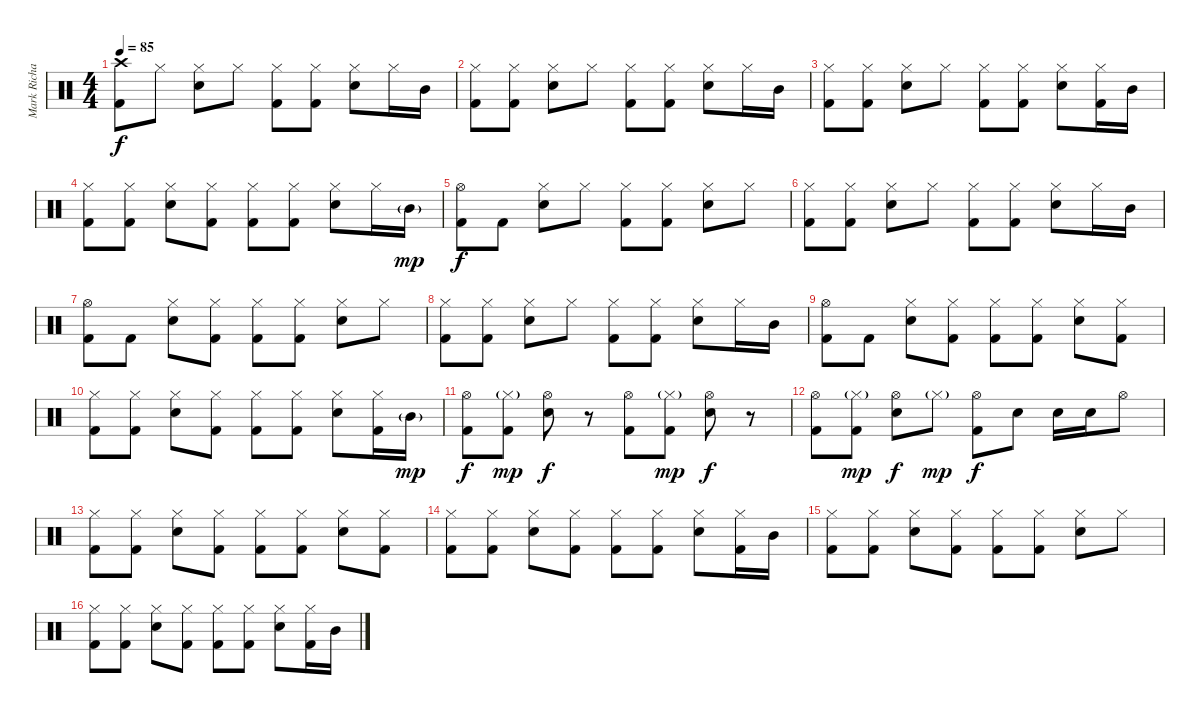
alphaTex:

\track ("Mark Richardson" "Mark Richa") {instrument percussion}
\staff {score}
\articulation defaults
\ts (4 4)
\tempo 85
\clef neutral
\ks c
("Crash high (hit)" "Kick (hit) 2").8{dy f} "Hi-Hat (closed)".8 ("Hi-Hat (closed)" "Snare (hit) 2").8 "Hi-Hat (closed)".8 ("Hi-Hat (closed)" "Kick (hit) 2").8 ("Hi-Hat (closed)" "Kick (hit) 2").8 ("Hi-Hat (closed)" "Snare (hit) 2").8 "Hi-Hat (closed)".16 "Mid Tom (hit)".16 |
("Hi-Hat (closed)" "Kick (hit) 2").8 ("Hi-Hat (closed)" "Kick (hit) 2").8 ("Hi-Hat (closed)" "Snare (hit) 2").8 "Hi-Hat (closed)".8 ("Hi-Hat (closed)" "Kick (hit) 2").8 ("Hi-Hat (closed)" "Kick (hit) 2").8 ("Hi-Hat (closed)" "Snare (hit) 2").8 "Hi-Hat (closed)".16 "Mid Tom (hit)".16 |
("Hi-Hat (closed)" "Kick (hit) 2").8 ("Hi-Hat (closed)" "Kick (hit) 2").8 ("Hi-Hat (closed)" "Snare (hit) 2").8 "Hi-Hat (closed)".8 ("Hi-Hat (closed)" "Kick (hit) 2").8 ("Hi-Hat (closed)" "Kick (hit) 2").8 ("Hi-Hat (closed)" "Snare (hit) 2").8 ("Hi-Hat (closed)" "Kick (hit) 2").16 "Mid Tom (hit)".16 |
("Hi-Hat (closed)" "Kick (hit) 2").8 ("Hi-Hat (closed)" "Kick (hit) 2").8 ("Hi-Hat (closed)" "Snare (hit) 2").8 ("Hi-Hat (closed)" "Kick (hit) 2").8 ("Hi-Hat (closed)" "Kick (hit) 2").8 ("Hi-Hat (closed)" "Kick (hit) 2").8 ("Hi-Hat (closed)" "Snare (hit) 2").8 "Hi-Hat (closed)".16 "Mid Tom (hit)"{g}.16{dy mp} |
("Hi-Hat (open)" "Kick (hit) 2").8{dy f} "Kick (hit) 2".8 ("Hi-Hat (closed)" "Snare (hit) 2").8 "Hi-Hat (closed)".8 ("Hi-Hat (closed)" "Kick (hit) 2").8 ("Hi-Hat (closed)" "Kick (hit) 2").8 ("Hi-Hat (closed)" "Snare (hit) 2").8 "Hi-Hat (closed)".8 |
("Hi-Hat (closed)" "Kick (hit) 2").8 ("Hi-Hat (closed)" "Kick (hit) 2").8 ("Hi-Hat (closed)" "Snare (hit) 2").8 "Hi-Hat (closed)".8 ("Hi-Hat (closed)" "Kick (hit) 2").8 ("Hi-Hat (closed)" "Kick (hit) 2").8 ("Hi-Hat (closed)" "Snare (hit) 2").8 "Hi-Hat (closed)".16 "Mid Tom (hit)".16 |
("Hi-Hat (open)" "Kick (hit) 2").8 "Kick (hit) 2".8 ("Hi-Hat (closed)" "Snare (hit) 2").8 ("Hi-Hat (closed)" "Kick (hit) 2").8 ("Hi-Hat (closed)" "Kick (hit) 2").8 ("Hi-Hat (closed)" "Kick (hit) 2").8 ("Hi-Hat (closed)" "Snare (hit) 2").8 "Hi-Hat (closed)".8 |
("Hi-Hat (closed)" "Kick (hit) 2").8 ("Hi-Hat (closed)" "Kick (hit) 2").8 ("Hi-Hat (closed)" "Snare (hit) 2").8 "Hi-Hat (closed)".8 ("Hi-Hat (closed)" "Kick (hit) 2").8 ("Hi-Hat (closed)" "Kick (hit) 2").8 ("Hi-Hat (closed)" "Snare (hit) 2").8 "Hi-Hat (closed)".16 "Mid Tom (hit)".16 |
("Hi-Hat (open)" "Kick (hit) 2").8 "Kick (hit) 2".8 ("Hi-Hat (closed)" "Snare (hit) 2").8 ("Hi-Hat (closed)" "Kick (hit) 2").8 ("Hi-Hat (closed)" "Kick (hit) 2").8 ("Hi-Hat (closed)" "Kick (hit) 2").8 ("Hi-Hat (closed)" "Snare (hit) 2").8 ("Hi-Hat (closed)" "Kick (hit) 2").8 |
("Hi-Hat (closed)" "Kick (hit) 2").8 ("Hi-Hat (closed)" "Kick (hit) 2").8 ("Hi-Hat (closed)" "Snare (hit) 2").8 ("Hi-Hat (closed)" "Kick (hit) 2").8 ("Hi-Hat (closed)" "Kick (hit) 2").8 ("Hi-Hat (closed)" "Kick (hit) 2").8 ("Hi-Hat (closed)" "Snare (hit) 2").8 ("Hi-Hat (closed)" "Kick (hit) 2").16 "Mid Tom (hit)"{g}.16{dy mp} |
("Hi-Hat (open)" "Kick (hit) 2").8{dy f} ("Hi-Hat (closed)"{g} "Kick (hit) 2").8{dy mp} ("Hi-Hat (open)" "Snare (hit) 2").8{dy f} r.8 ("Hi-Hat (open)" "Kick (hit) 2").8 ("Hi-Hat (closed)"{g} "Kick (hit) 2").8{dy mp} ("Hi-Hat (open)" "Snare (hit) 2").8{dy f} r.8 |
("Hi-Hat (open)" "Kick (hit) 2").8 ("Hi-Hat (closed)"{g} "Kick (hit) 2").8{dy mp} ("Hi-Hat (open)" "Snare (hit) 2").8{dy f} "Hi-Hat (closed)"{g}.8{dy mp} ("Hi-Hat (open)" "Kick (hit) 2").8{dy f} "Snare (hit) 2".8 "Snare (hit) 2".16 "Snare (hit) 2".16 "Hi-Hat (open)".8 |
("Hi-Hat (closed)" "Kick (hit) 2").8 ("Hi-Hat (closed)" "Kick (hit) 2").8 ("Hi-Hat (closed)" "Snare (hit) 2").8 ("Hi-Hat (closed)" "Kick (hit) 2").8 ("Hi-Hat (closed)" "Kick (hit) 2").8 ("Hi-Hat (closed)" "Kick (hit) 2").8 ("Hi-Hat (closed)" "Snare (hit) 2").8 ("Hi-Hat (closed)" "Kick (hit) 2").8 |
("Hi-Hat (closed)" "Kick (hit) 2").8 ("Hi-Hat (closed)" "Kick (hit) 2").8 ("Hi-Hat (closed)" "Snare (hit) 2").8 ("Hi-Hat (closed)" "Kick (hit) 2").8 ("Hi-Hat (closed)" "Kick (hit) 2").8 ("Hi-Hat (closed)" "Kick (hit) 2").8 ("Hi-Hat (closed)" "Snare (hit) 2").8 ("Hi-Hat (closed)" "Kick (hit) 2").16 "Mid Tom (hit)".16 |
("Hi-Hat (closed)" "Kick (hit) 2").8 ("Hi-Hat (closed)" "Kick (hit) 2").8 ("Hi-Hat (closed)" "Snare (hit) 2").8 ("Hi-Hat (closed)" "Kick (hit) 2").8 ("Hi-Hat (closed)" "Kick (hit) 2").8 ("Hi-Hat (closed)" "Kick (hit) 2").8 ("Hi-Hat (closed)" "Snare (hit) 2").8 "Hi-Hat (closed)".8 |
("Hi-Hat (closed)" "Kick (hit) 2").8 ("Hi-Hat (closed)" "Kick (hit) 2").8 ("Hi-Hat (closed)" "Snare (hit) 2").8 ("Hi-Hat (closed)" "Kick (hit) 2").8 ("Hi-Hat (closed)" "Kick (hit) 2").8 ("Hi-Hat (closed)" "Kick (hit) 2").8 ("Hi-Hat (closed)" "Snare (hit) 2").8 ("Hi-Hat (closed)" "Kick (hit) 2").16 "Mid Tom (hit)".16
